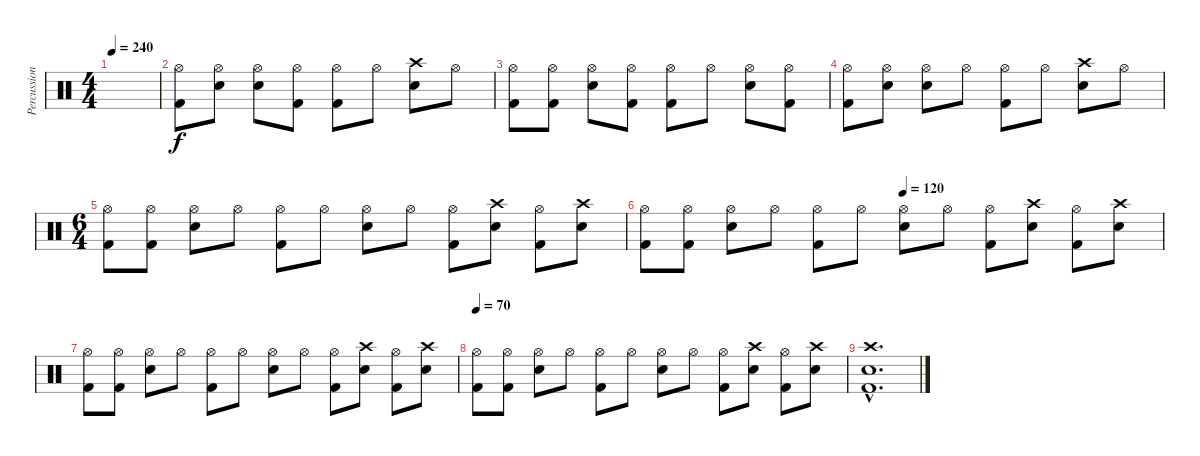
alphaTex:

\track ("Percussion" "Percussion") {instrument percussion}
\staff {score}
\articulation defaults
\ts (4 4)
\tempo 240
\clef neutral
\ks c
|
("Hi-Hat (open)" "Kick (hit) 2").8 ("Hi-Hat (open)" "Snare (hit) 2").8 ("Hi-Hat (open)" "Snare (hit) 2").8 ("Hi-Hat (open)" "Kick (hit) 2").8 ("Hi-Hat (open)" "Kick (hit) 2").8 "Hi-Hat (open)".8 ("Crash high (hit)" "Snare (hit) 2").8 "Hi-Hat (open)".8 |
("Hi-Hat (open)" "Kick (hit) 2").8 ("Hi-Hat (open)" "Kick (hit) 2").8 ("Hi-Hat (open)" "Snare (hit) 2").8 ("Hi-Hat (open)" "Kick (hit) 2").8 ("Hi-Hat (open)" "Kick (hit) 2").8 "Hi-Hat (open)".8 ("Hi-Hat (open)" "Snare (hit) 2").8 ("Hi-Hat (open)" "Kick (hit) 2").8 |
("Hi-Hat (open)" "Kick (hit) 2").8 ("Hi-Hat (open)" "Snare (hit) 2").8 ("Hi-Hat (open)" "Snare (hit) 2").8 "Hi-Hat (open)".8 ("Hi-Hat (open)" "Kick (hit) 2").8 "Hi-Hat (open)".8 ("Crash high (hit)" "Snare (hit) 2").8 "Hi-Hat (open)".8 |
\ts (6 4)
("Hi-Hat (open)" "Kick (hit) 2").8 ("Hi-Hat (open)" "Kick (hit) 2").8 ("Hi-Hat (open)" "Snare (hit) 2").8 "Hi-Hat (open)".8 ("Hi-Hat (open)" "Kick (hit) 2").8 "Hi-Hat (open)".8 ("Hi-Hat (open)" "Snare (hit) 2").8 "Hi-Hat (open)".8 ("Hi-Hat (open)" "Kick (hit) 2").8 ("Crash high (hit)" "Snare (hit) 2").8 ("Hi-Hat (open)" "Kick (hit) 2").8 ("Crash high (hit)" "Snare (hit) 2").8 |
\tempo (120 0.5)
("Hi-Hat (open)" "Kick (hit) 2").8 ("Hi-Hat (open)" "Kick (hit) 2").8 ("Hi-Hat (open)" "Snare (hit) 2").8 "Hi-Hat (open)".8 ("Hi-Hat (open)" "Kick (hit) 2").8 "Hi-Hat (open)".8 ("Hi-Hat (open)" "Snare (hit) 2").8 "Hi-Hat (open)".8 ("Hi-Hat (open)" "Kick (hit) 2").8 ("Crash high (hit)" "Snare (hit) 2").8 ("Hi-Hat (open)" "Kick (hit) 2").8 ("Crash high (hit)" "Snare (hit) 2").8 |
("Hi-Hat (open)" "Kick (hit) 2").8 ("Hi-Hat (open)" "Kick (hit) 2").8 ("Hi-Hat (open)" "Snare (hit) 2").8 "Hi-Hat (open)".8 ("Hi-Hat (open)" "Kick (hit) 2").8 "Hi-Hat (open)".8 ("Hi-Hat (open)" "Snare (hit) 2").8 "Hi-Hat (open)".8 ("Hi-Hat (open)" "Kick (hit) 2").8 ("Crash high (hit)" "Snare (hit) 2").8 ("Hi-Hat (open)" "Kick (hit) 2").8 ("Crash high (hit)" "Snare (hit) 2").8 |
\tempo 70
("Hi-Hat (open)" "Kick (hit) 2").8 ("Hi-Hat (open)" "Kick (hit) 2").8 ("Hi-Hat (open)" "Snare (hit) 2").8 "Hi-Hat (open)".8 ("Hi-Hat (open)" "Kick (hit) 2").8 "Hi-Hat (open)".8 ("Hi-Hat (open)" "Snare (hit) 2").8 "Hi-Hat (open)".8 ("Hi-Hat (open)" "Kick (hit) 2").8 ("Crash high (hit)" "Snare (hit) 2").8 ("Hi-Hat (open)" "Kick (hit) 2").8 ("Crash high (hit)" "Snare (hit) 2").8 |
("Crash high (hit)"{hac} "Electric Snare (hit)"{hac} "Kick (hit) 2"{hac}).1{d}
